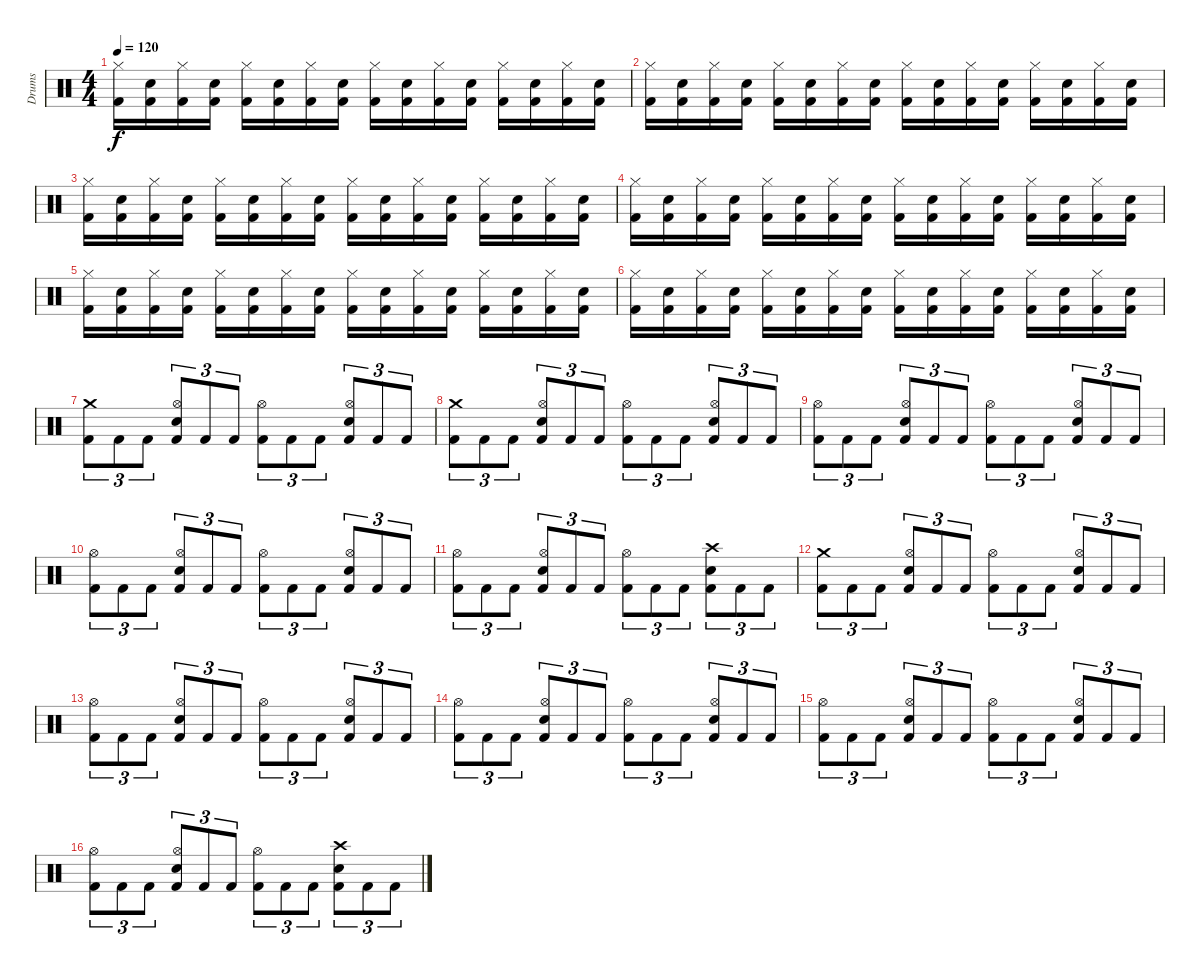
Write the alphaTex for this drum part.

\track ("Drums" "Drums") {instrument percussion}
\staff {score}
\articulation defaults
\ts (4 4)
\tempo 120
\clef neutral
\ks c
("Kick (hit) 2" "Hi-Hat (closed)").16{dy f} ("Kick (hit) 2" "Snare (hit) 2").16 ("Kick (hit) 2" "Hi-Hat (closed)").16 ("Kick (hit) 2" "Snare (hit) 2").16 ("Kick (hit) 2" "Hi-Hat (closed)").16 ("Kick (hit) 2" "Snare (hit) 2").16 ("Kick (hit) 2" "Hi-Hat (closed)").16 ("Kick (hit) 2" "Snare (hit) 2").16 ("Kick (hit) 2" "Hi-Hat (closed)").16 ("Kick (hit) 2" "Snare (hit) 2").16 ("Kick (hit) 2" "Hi-Hat (closed)").16 ("Kick (hit) 2" "Snare (hit) 2").16 ("Kick (hit) 2" "Hi-Hat (closed)").16 ("Kick (hit) 2" "Snare (hit) 2").16 ("Kick (hit) 2" "Hi-Hat (closed)").16 ("Kick (hit) 2" "Snare (hit) 2").16 |
("Kick (hit) 2" "Hi-Hat (closed)").16 ("Kick (hit) 2" "Snare (hit) 2").16 ("Kick (hit) 2" "Hi-Hat (closed)").16 ("Kick (hit) 2" "Snare (hit) 2").16 ("Kick (hit) 2" "Hi-Hat (closed)").16 ("Kick (hit) 2" "Snare (hit) 2").16 ("Kick (hit) 2" "Hi-Hat (closed)").16 ("Kick (hit) 2" "Snare (hit) 2").16 ("Kick (hit) 2" "Hi-Hat (closed)").16 ("Kick (hit) 2" "Snare (hit) 2").16 ("Kick (hit) 2" "Hi-Hat (closed)").16 ("Kick (hit) 2" "Snare (hit) 2").16 ("Kick (hit) 2" "Hi-Hat (closed)").16 ("Kick (hit) 2" "Snare (hit) 2").16 ("Kick (hit) 2" "Hi-Hat (closed)").16 ("Kick (hit) 2" "Snare (hit) 2").16 |
("Kick (hit) 2" "Hi-Hat (closed)").16 ("Kick (hit) 2" "Snare (hit) 2").16 ("Kick (hit) 2" "Hi-Hat (closed)").16 ("Kick (hit) 2" "Snare (hit) 2").16 ("Kick (hit) 2" "Hi-Hat (closed)").16 ("Kick (hit) 2" "Snare (hit) 2").16 ("Kick (hit) 2" "Hi-Hat (closed)").16 ("Kick (hit) 2" "Snare (hit) 2").16 ("Kick (hit) 2" "Hi-Hat (closed)").16 ("Kick (hit) 2" "Snare (hit) 2").16 ("Kick (hit) 2" "Hi-Hat (closed)").16 ("Kick (hit) 2" "Snare (hit) 2").16 ("Kick (hit) 2" "Hi-Hat (closed)").16 ("Kick (hit) 2" "Snare (hit) 2").16 ("Kick (hit) 2" "Hi-Hat (closed)").16 ("Kick (hit) 2" "Snare (hit) 2").16 |
("Kick (hit) 2" "Hi-Hat (closed)").16 ("Kick (hit) 2" "Snare (hit) 2").16 ("Kick (hit) 2" "Hi-Hat (closed)").16 ("Kick (hit) 2" "Snare (hit) 2").16 ("Kick (hit) 2" "Hi-Hat (closed)").16 ("Kick (hit) 2" "Snare (hit) 2").16 ("Kick (hit) 2" "Hi-Hat (closed)").16 ("Kick (hit) 2" "Snare (hit) 2").16 ("Kick (hit) 2" "Hi-Hat (closed)").16 ("Kick (hit) 2" "Snare (hit) 2").16 ("Kick (hit) 2" "Hi-Hat (closed)").16 ("Kick (hit) 2" "Snare (hit) 2").16 ("Kick (hit) 2" "Hi-Hat (closed)").16 ("Kick (hit) 2" "Snare (hit) 2").16 ("Kick (hit) 2" "Hi-Hat (closed)").16 ("Kick (hit) 2" "Snare (hit) 2").16 |
("Kick (hit) 2" "Hi-Hat (closed)").16 ("Kick (hit) 2" "Snare (hit) 2").16 ("Kick (hit) 2" "Hi-Hat (closed)").16 ("Kick (hit) 2" "Snare (hit) 2").16 ("Kick (hit) 2" "Hi-Hat (closed)").16 ("Kick (hit) 2" "Snare (hit) 2").16 ("Kick (hit) 2" "Hi-Hat (closed)").16 ("Kick (hit) 2" "Snare (hit) 2").16 ("Kick (hit) 2" "Hi-Hat (closed)").16 ("Kick (hit) 2" "Snare (hit) 2").16 ("Kick (hit) 2" "Hi-Hat (closed)").16 ("Kick (hit) 2" "Snare (hit) 2").16 ("Kick (hit) 2" "Hi-Hat (closed)").16 ("Kick (hit) 2" "Snare (hit) 2").16 ("Kick (hit) 2" "Hi-Hat (closed)").16 ("Kick (hit) 2" "Snare (hit) 2").16 |
("Kick (hit) 2" "Hi-Hat (closed)").16 ("Kick (hit) 2" "Snare (hit) 2").16 ("Kick (hit) 2" "Hi-Hat (closed)").16 ("Kick (hit) 2" "Snare (hit) 2").16 ("Kick (hit) 2" "Hi-Hat (closed)").16 ("Kick (hit) 2" "Snare (hit) 2").16 ("Kick (hit) 2" "Hi-Hat (closed)").16 ("Kick (hit) 2" "Snare (hit) 2").16 ("Kick (hit) 2" "Hi-Hat (closed)").16 ("Kick (hit) 2" "Snare (hit) 2").16 ("Kick (hit) 2" "Hi-Hat (closed)").16 ("Kick (hit) 2" "Snare (hit) 2").16 ("Kick (hit) 2" "Hi-Hat (closed)").16 ("Kick (hit) 2" "Snare (hit) 2").16 ("Kick (hit) 2" "Hi-Hat (closed)").16 ("Kick (hit) 2" "Snare (hit) 2").16 |
("Crash medium (hit)" "Kick (hit) 2").8{tu (3 2)} "Kick (hit) 2".8{tu (3 2)} "Kick (hit) 2".8{tu (3 2)} ("Hi-Hat (open)" "Electric Snare (hit)" "Kick (hit) 2").8{tu (3 2)} "Kick (hit) 2".8{tu (3 2)} "Kick (hit) 2".8{tu (3 2)} ("Hi-Hat (open)" "Kick (hit) 2").8{tu (3 2)} "Kick (hit) 2".8{tu (3 2)} "Kick (hit) 2".8{tu (3 2)} ("Hi-Hat (open)" "Electric Snare (hit)" "Kick (hit) 2").8{tu (3 2)} "Kick (hit) 2".8{tu (3 2)} "Kick (hit) 2".8{tu (3 2)} |
("Crash medium (hit)" "Kick (hit) 2").8{tu (3 2)} "Kick (hit) 2".8{tu (3 2)} "Kick (hit) 2".8{tu (3 2)} ("Hi-Hat (open)" "Electric Snare (hit)" "Kick (hit) 2").8{tu (3 2)} "Kick (hit) 2".8{tu (3 2)} "Kick (hit) 2".8{tu (3 2)} ("Hi-Hat (open)" "Kick (hit) 2").8{tu (3 2)} "Kick (hit) 2".8{tu (3 2)} "Kick (hit) 2".8{tu (3 2)} ("Hi-Hat (open)" "Electric Snare (hit)" "Kick (hit) 2").8{tu (3 2)} "Kick (hit) 2".8{tu (3 2)} "Kick (hit) 2".8{tu (3 2)} |
("Hi-Hat (open)" "Kick (hit) 2").8{tu (3 2)} "Kick (hit) 2".8{tu (3 2)} "Kick (hit) 2".8{tu (3 2)} ("Hi-Hat (open)" "Electric Snare (hit)" "Kick (hit) 2").8{tu (3 2)} "Kick (hit) 2".8{tu (3 2)} "Kick (hit) 2".8{tu (3 2)} ("Hi-Hat (open)" "Kick (hit) 2").8{tu (3 2)} "Kick (hit) 2".8{tu (3 2)} "Kick (hit) 2".8{tu (3 2)} ("Hi-Hat (open)" "Electric Snare (hit)" "Kick (hit) 2").8{tu (3 2)} "Kick (hit) 2".8{tu (3 2)} "Kick (hit) 2".8{tu (3 2)} |
("Hi-Hat (open)" "Kick (hit) 2").8{tu (3 2)} "Kick (hit) 2".8{tu (3 2)} "Kick (hit) 2".8{tu (3 2)} ("Hi-Hat (open)" "Electric Snare (hit)" "Kick (hit) 2").8{tu (3 2)} "Kick (hit) 2".8{tu (3 2)} "Kick (hit) 2".8{tu (3 2)} ("Hi-Hat (open)" "Kick (hit) 2").8{tu (3 2)} "Kick (hit) 2".8{tu (3 2)} "Kick (hit) 2".8{tu (3 2)} ("Hi-Hat (open)" "Electric Snare (hit)" "Kick (hit) 2").8{tu (3 2)} "Kick (hit) 2".8{tu (3 2)} "Kick (hit) 2".8{tu (3 2)} |
("Hi-Hat (open)" "Kick (hit) 2").8{tu (3 2)} "Kick (hit) 2".8{tu (3 2)} "Kick (hit) 2".8{tu (3 2)} ("Hi-Hat (open)" "Electric Snare (hit)" "Kick (hit) 2").8{tu (3 2)} "Kick (hit) 2".8{tu (3 2)} "Kick (hit) 2".8{tu (3 2)} ("Hi-Hat (open)" "Kick (hit) 2").8{tu (3 2)} "Kick (hit) 2".8{tu (3 2)} "Kick (hit) 2".8{tu (3 2)} ("Crash high (hit)" "Electric Snare (hit)" "Kick (hit) 2").8{tu (3 2)} "Kick (hit) 2".8{tu (3 2)} "Kick (hit) 2".8{tu (3 2)} |
("Crash medium (hit)" "Kick (hit) 2").8{tu (3 2)} "Kick (hit) 2".8{tu (3 2)} "Kick (hit) 2".8{tu (3 2)} ("Hi-Hat (open)" "Electric Snare (hit)" "Kick (hit) 2").8{tu (3 2)} "Kick (hit) 2".8{tu (3 2)} "Kick (hit) 2".8{tu (3 2)} ("Hi-Hat (open)" "Kick (hit) 2").8{tu (3 2)} "Kick (hit) 2".8{tu (3 2)} "Kick (hit) 2".8{tu (3 2)} ("Hi-Hat (open)" "Electric Snare (hit)" "Kick (hit) 2").8{tu (3 2)} "Kick (hit) 2".8{tu (3 2)} "Kick (hit) 2".8{tu (3 2)} |
("Hi-Hat (open)" "Kick (hit) 2").8{tu (3 2)} "Kick (hit) 2".8{tu (3 2)} "Kick (hit) 2".8{tu (3 2)} ("Hi-Hat (open)" "Electric Snare (hit)" "Kick (hit) 2").8{tu (3 2)} "Kick (hit) 2".8{tu (3 2)} "Kick (hit) 2".8{tu (3 2)} ("Hi-Hat (open)" "Kick (hit) 2").8{tu (3 2)} "Kick (hit) 2".8{tu (3 2)} "Kick (hit) 2".8{tu (3 2)} ("Hi-Hat (open)" "Electric Snare (hit)" "Kick (hit) 2").8{tu (3 2)} "Kick (hit) 2".8{tu (3 2)} "Kick (hit) 2".8{tu (3 2)} |
("Hi-Hat (open)" "Kick (hit) 2").8{tu (3 2)} "Kick (hit) 2".8{tu (3 2)} "Kick (hit) 2".8{tu (3 2)} ("Hi-Hat (open)" "Electric Snare (hit)" "Kick (hit) 2").8{tu (3 2)} "Kick (hit) 2".8{tu (3 2)} "Kick (hit) 2".8{tu (3 2)} ("Hi-Hat (open)" "Kick (hit) 2").8{tu (3 2)} "Kick (hit) 2".8{tu (3 2)} "Kick (hit) 2".8{tu (3 2)} ("Hi-Hat (open)" "Electric Snare (hit)" "Kick (hit) 2").8{tu (3 2)} "Kick (hit) 2".8{tu (3 2)} "Kick (hit) 2".8{tu (3 2)} |
("Hi-Hat (open)" "Kick (hit) 2").8{tu (3 2)} "Kick (hit) 2".8{tu (3 2)} "Kick (hit) 2".8{tu (3 2)} ("Hi-Hat (open)" "Electric Snare (hit)" "Kick (hit) 2").8{tu (3 2)} "Kick (hit) 2".8{tu (3 2)} "Kick (hit) 2".8{tu (3 2)} ("Hi-Hat (open)" "Kick (hit) 2").8{tu (3 2)} "Kick (hit) 2".8{tu (3 2)} "Kick (hit) 2".8{tu (3 2)} ("Hi-Hat (open)" "Electric Snare (hit)" "Kick (hit) 2").8{tu (3 2)} "Kick (hit) 2".8{tu (3 2)} "Kick (hit) 2".8{tu (3 2)} |
("Hi-Hat (open)" "Kick (hit) 2").8{tu (3 2)} "Kick (hit) 2".8{tu (3 2)} "Kick (hit) 2".8{tu (3 2)} ("Hi-Hat (open)" "Electric Snare (hit)" "Kick (hit) 2").8{tu (3 2)} "Kick (hit) 2".8{tu (3 2)} "Kick (hit) 2".8{tu (3 2)} ("Hi-Hat (open)" "Kick (hit) 2").8{tu (3 2)} "Kick (hit) 2".8{tu (3 2)} "Kick (hit) 2".8{tu (3 2)} ("Crash high (hit)" "Electric Snare (hit)" "Kick (hit) 2").8{tu (3 2)} "Kick (hit) 2".8{tu (3 2)} "Kick (hit) 2".8{tu (3 2)}
